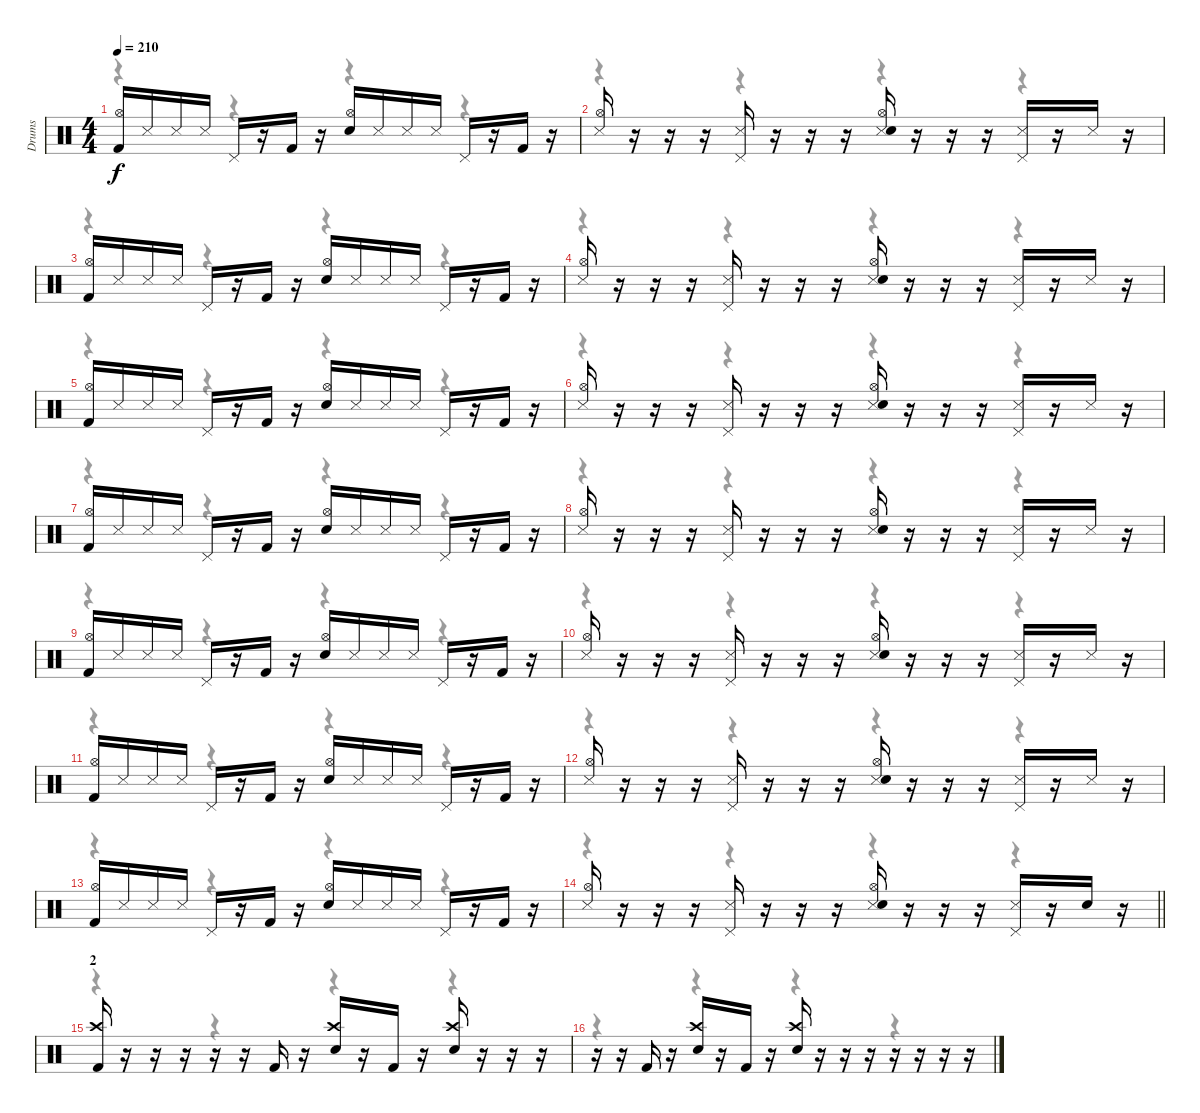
\track ("Drums" "Drums") {instrument percussion}
\staff {score}
\articulation defaults
\voice
\ts (4 4)
\tempo 210
\clef neutral
\ks c
("Kick (hit) 2" "Hi-Hat (open)").16{dy f} "Snare (side stick) 3".16 "Snare (side stick) 3".16 "Snare (side stick) 3".16 "Pedal Hi-Hat (hit)".16 r.16 "Kick (hit) 2".16 r.16 ("Snare (hit) 2" "Hi-Hat (open)").16 "Snare (side stick) 3".16 "Snare (side stick) 3".16 "Snare (side stick) 3".16 "Pedal Hi-Hat (hit)".16 r.16 "Kick (hit) 2".16 r.16 |
("Snare (side stick) 3" "Hi-Hat (open)").16 r.16 r.16 r.16 ("Snare (side stick) 3" "Pedal Hi-Hat (hit)").16 r.16 r.16 r.16 ("Snare (side stick) 3" "Snare (hit) 2" "Hi-Hat (open)").16 r.16 r.16 r.16 ("Snare (side stick) 3" "Pedal Hi-Hat (hit)").16 r.16 "Snare (side stick) 3".16 r.16 |
("Kick (hit) 2" "Hi-Hat (open)").16 "Snare (side stick) 3".16 "Snare (side stick) 3".16 "Snare (side stick) 3".16 "Pedal Hi-Hat (hit)".16 r.16 "Kick (hit) 2".16 r.16 ("Snare (hit) 2" "Hi-Hat (open)").16 "Snare (side stick) 3".16 "Snare (side stick) 3".16 "Snare (side stick) 3".16 "Pedal Hi-Hat (hit)".16 r.16 "Kick (hit) 2".16 r.16 |
("Snare (side stick) 3" "Hi-Hat (open)").16 r.16 r.16 r.16 ("Snare (side stick) 3" "Pedal Hi-Hat (hit)").16 r.16 r.16 r.16 ("Snare (side stick) 3" "Snare (hit) 2" "Hi-Hat (open)").16 r.16 r.16 r.16 ("Snare (side stick) 3" "Pedal Hi-Hat (hit)").16 r.16 "Snare (side stick) 3".16 r.16 |
("Kick (hit) 2" "Hi-Hat (open)").16 "Snare (side stick) 3".16 "Snare (side stick) 3".16 "Snare (side stick) 3".16 "Pedal Hi-Hat (hit)".16 r.16 "Kick (hit) 2".16 r.16 ("Snare (hit) 2" "Hi-Hat (open)").16 "Snare (side stick) 3".16 "Snare (side stick) 3".16 "Snare (side stick) 3".16 "Pedal Hi-Hat (hit)".16 r.16 "Kick (hit) 2".16 r.16 |
("Snare (side stick) 3" "Hi-Hat (open)").16 r.16 r.16 r.16 ("Snare (side stick) 3" "Pedal Hi-Hat (hit)").16 r.16 r.16 r.16 ("Snare (side stick) 3" "Snare (hit) 2" "Hi-Hat (open)").16 r.16 r.16 r.16 ("Snare (side stick) 3" "Pedal Hi-Hat (hit)").16 r.16 "Snare (side stick) 3".16 r.16 |
("Kick (hit) 2" "Hi-Hat (open)").16 "Snare (side stick) 3".16 "Snare (side stick) 3".16 "Snare (side stick) 3".16 "Pedal Hi-Hat (hit)".16 r.16 "Kick (hit) 2".16 r.16 ("Snare (hit) 2" "Hi-Hat (open)").16 "Snare (side stick) 3".16 "Snare (side stick) 3".16 "Snare (side stick) 3".16 "Pedal Hi-Hat (hit)".16 r.16 "Kick (hit) 2".16 r.16 |
("Snare (side stick) 3" "Hi-Hat (open)").16 r.16 r.16 r.16 ("Snare (side stick) 3" "Pedal Hi-Hat (hit)").16 r.16 r.16 r.16 ("Snare (side stick) 3" "Snare (hit) 2" "Hi-Hat (open)").16 r.16 r.16 r.16 ("Snare (side stick) 3" "Pedal Hi-Hat (hit)").16 r.16 "Snare (side stick) 3".16 r.16 |
("Kick (hit) 2" "Hi-Hat (open)").16 "Snare (side stick) 3".16 "Snare (side stick) 3".16 "Snare (side stick) 3".16 "Pedal Hi-Hat (hit)".16 r.16 "Kick (hit) 2".16 r.16 ("Snare (hit) 2" "Hi-Hat (open)").16 "Snare (side stick) 3".16 "Snare (side stick) 3".16 "Snare (side stick) 3".16 "Pedal Hi-Hat (hit)".16 r.16 "Kick (hit) 2".16 r.16 |
("Snare (side stick) 3" "Hi-Hat (open)").16 r.16 r.16 r.16 ("Snare (side stick) 3" "Pedal Hi-Hat (hit)").16 r.16 r.16 r.16 ("Snare (side stick) 3" "Snare (hit) 2" "Hi-Hat (open)").16 r.16 r.16 r.16 ("Snare (side stick) 3" "Pedal Hi-Hat (hit)").16 r.16 "Snare (side stick) 3".16 r.16 |
("Kick (hit) 2" "Hi-Hat (open)").16 "Snare (side stick) 3".16 "Snare (side stick) 3".16 "Snare (side stick) 3".16 "Pedal Hi-Hat (hit)".16 r.16 "Kick (hit) 2".16 r.16 ("Snare (hit) 2" "Hi-Hat (open)").16 "Snare (side stick) 3".16 "Snare (side stick) 3".16 "Snare (side stick) 3".16 "Pedal Hi-Hat (hit)".16 r.16 "Kick (hit) 2".16 r.16 |
("Snare (side stick) 3" "Hi-Hat (open)").16 r.16 r.16 r.16 ("Snare (side stick) 3" "Pedal Hi-Hat (hit)").16 r.16 r.16 r.16 ("Snare (side stick) 3" "Snare (hit) 2" "Hi-Hat (open)").16 r.16 r.16 r.16 ("Snare (side stick) 3" "Pedal Hi-Hat (hit)").16 r.16 "Snare (side stick) 3".16 r.16 |
("Kick (hit) 2" "Hi-Hat (open)").16 "Snare (side stick) 3".16 "Snare (side stick) 3".16 "Snare (side stick) 3".16 "Pedal Hi-Hat (hit)".16 r.16 "Kick (hit) 2".16 r.16 ("Snare (hit) 2" "Hi-Hat (open)").16 "Snare (side stick) 3".16 "Snare (side stick) 3".16 "Snare (side stick) 3".16 "Pedal Hi-Hat (hit)".16 r.16 "Kick (hit) 2".16 r.16 |
\barLineRight lightlight
("Snare (side stick) 3" "Hi-Hat (open)").16 r.16 r.16 r.16 ("Snare (side stick) 3" "Pedal Hi-Hat (hit)").16 r.16 r.16 r.16 ("Snare (side stick) 3" "Snare (hit) 2" "Hi-Hat (open)").16 r.16 r.16 r.16 ("Snare (side stick) 3" "Pedal Hi-Hat (hit)").16 r.16 "Snare (hit) 2".16 r.16 |
\section ("" "2")
("Kick (hit) 2" "Crash high (hit)").16 r.16 r.16 r.16 r.16 r.16 "Kick (hit) 2".16 r.16 ("Snare (hit) 2" "Crash high (hit)").16 r.16 "Kick (hit) 2".16 r.16 ("Snare (hit) 2" "Crash high (hit)").16 r.16 r.16 r.16 |
r.16 r.16 "Kick (hit) 2".16 r.16 ("Snare (hit) 2" "Crash high (hit)").16 r.16 "Kick (hit) 2".16 r.16 ("Snare (hit) 2" "Crash high (hit)").16 r.16 r.16 r.16 r.16 r.16 r.16 r.16
\voice
\clef neutral
\ottava regular
\simile none
\ks c
r.4{dy mf} r.4 r.4 r.4 |
r.4 r.4 r.4 r.4 |
r.4 r.4 r.4 r.4 |
r.4 r.4 r.4 r.4 |
r.4 r.4 r.4 r.4 |
r.4 r.4 r.4 r.4 |
r.4 r.4 r.4 r.4 |
r.4 r.4 r.4 r.4 |
r.4 r.4 r.4 r.4 |
r.4 r.4 r.4 r.4 |
r.4 r.4 r.4 r.4 |
r.4 r.4 r.4 r.4 |
r.4 r.4 r.4 r.4 |
\barLineRight lightlight
r.4 r.4 r.4 r.4 |
r.4 r.4 r.4 r.4 |
r.4 r.4 r.4 r.4
